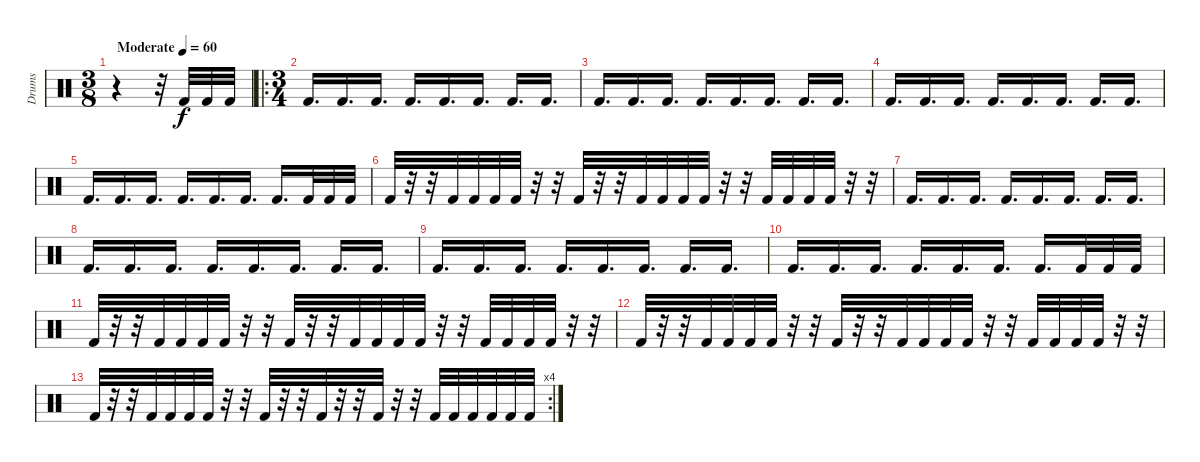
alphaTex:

\track ("Drums" "Drums") {instrument percussion}
\staff
\articulation defaults
\ts (3 8)
\tempo (60 "Moderate")
\clef neutral
\ks c
r.4{dy f} r.32 "Kick (hit) 2".32 "Kick (hit) 2".32 "Kick (hit) 2".32 |
\ro
\ts (3 4)
"Kick (hit) 2".16{d} "Kick (hit) 2".16{d} "Kick (hit) 2".16{d} "Kick (hit) 2".16{d} "Kick (hit) 2".16{d} "Kick (hit) 2".16{d} "Kick (hit) 2".16{d} "Kick (hit) 2".16{d} |
"Kick (hit) 2".16{d} "Kick (hit) 2".16{d} "Kick (hit) 2".16{d} "Kick (hit) 2".16{d} "Kick (hit) 2".16{d} "Kick (hit) 2".16{d} "Kick (hit) 2".16{d} "Kick (hit) 2".16{d} |
"Kick (hit) 2".16{d} "Kick (hit) 2".16{d} "Kick (hit) 2".16{d} "Kick (hit) 2".16{d} "Kick (hit) 2".16{d} "Kick (hit) 2".16{d} "Kick (hit) 2".16{d} "Kick (hit) 2".16{d} |
"Kick (hit) 2".16{d} "Kick (hit) 2".16{d} "Kick (hit) 2".16{d} "Kick (hit) 2".16{d} "Kick (hit) 2".16{d} "Kick (hit) 2".16{d} "Kick (hit) 2".16{d} "Kick (hit) 2".32 "Kick (hit) 2".32 "Kick (hit) 2".32 |
"Kick (hit) 2".32 r.32 r.32 "Kick (hit) 2".32 "Kick (hit) 2".32 "Kick (hit) 2".32 "Kick (hit) 2".32 r.32 r.32 "Kick (hit) 2".32 r.32 r.32 "Kick (hit) 2".32 "Kick (hit) 2".32 "Kick (hit) 2".32 "Kick (hit) 2".32 r.32 r.32 "Kick (hit) 2".32 "Kick (hit) 2".32 "Kick (hit) 2".32 "Kick (hit) 2".32 r.32 r.32 |
"Kick (hit) 2".16{d} "Kick (hit) 2".16{d} "Kick (hit) 2".16{d} "Kick (hit) 2".16{d} "Kick (hit) 2".16{d} "Kick (hit) 2".16{d} "Kick (hit) 2".16{d} "Kick (hit) 2".16{d} |
"Kick (hit) 2".16{d} "Kick (hit) 2".16{d} "Kick (hit) 2".16{d} "Kick (hit) 2".16{d} "Kick (hit) 2".16{d} "Kick (hit) 2".16{d} "Kick (hit) 2".16{d} "Kick (hit) 2".16{d} |
"Kick (hit) 2".16{d} "Kick (hit) 2".16{d} "Kick (hit) 2".16{d} "Kick (hit) 2".16{d} "Kick (hit) 2".16{d} "Kick (hit) 2".16{d} "Kick (hit) 2".16{d} "Kick (hit) 2".16{d} |
"Kick (hit) 2".16{d} "Kick (hit) 2".16{d} "Kick (hit) 2".16{d} "Kick (hit) 2".16{d} "Kick (hit) 2".16{d} "Kick (hit) 2".16{d} "Kick (hit) 2".16{d} "Kick (hit) 2".32 "Kick (hit) 2".32 "Kick (hit) 2".32 |
"Kick (hit) 2".32 r.32 r.32 "Kick (hit) 2".32 "Kick (hit) 2".32 "Kick (hit) 2".32 "Kick (hit) 2".32 r.32 r.32 "Kick (hit) 2".32 r.32 r.32 "Kick (hit) 2".32 "Kick (hit) 2".32 "Kick (hit) 2".32 "Kick (hit) 2".32 r.32 r.32 "Kick (hit) 2".32 "Kick (hit) 2".32 "Kick (hit) 2".32 "Kick (hit) 2".32 r.32 r.32 |
"Kick (hit) 2".32 r.32 r.32 "Kick (hit) 2".32 "Kick (hit) 2".32 "Kick (hit) 2".32 "Kick (hit) 2".32 r.32 r.32 "Kick (hit) 2".32 r.32 r.32 "Kick (hit) 2".32 "Kick (hit) 2".32 "Kick (hit) 2".32 "Kick (hit) 2".32 r.32 r.32 "Kick (hit) 2".32 "Kick (hit) 2".32 "Kick (hit) 2".32 "Kick (hit) 2".32 r.32 r.32 |
\rc 4 "Kick (hit) 2".32
r.32 r.32 "Kick (hit) 2".32 "Kick (hit) 2".32 "Kick (hit) 2".32 "Kick (hit) 2".32 r.32 r.32 "Kick (hit) 2".32 r.32 r.32 "Kick (hit) 2".32 r.32 r.32 "Kick (hit) 2".32 r.32 r.32 "Kick (hit) 2".32 "Kick (hit) 2".32 "Kick (hit) 2".32 "Kick (hit) 2".32 "Kick (hit) 2".32 "Kick (hit) 2".32
